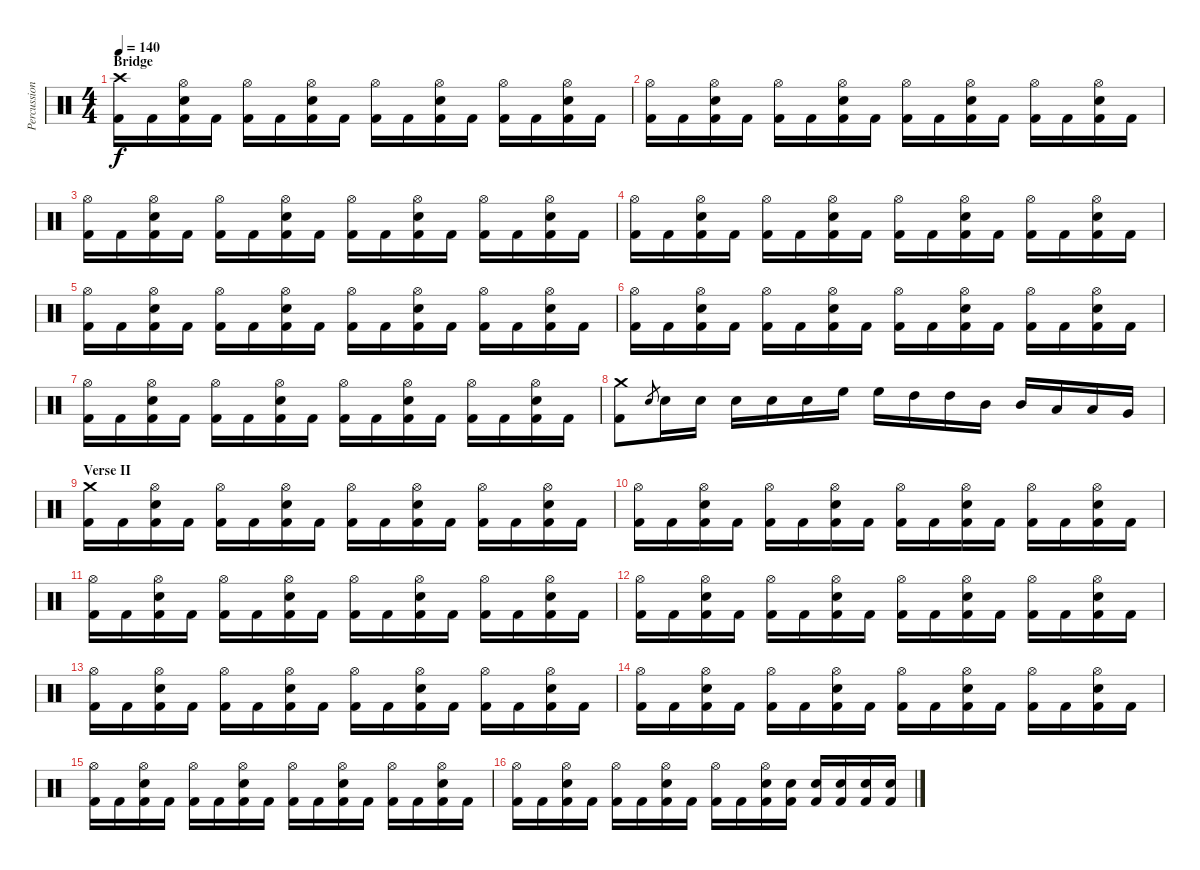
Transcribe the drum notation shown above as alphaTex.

\track ("Percussion" "Percussion") {instrument percussion}
\staff {score}
\articulation defaults
\ts (4 4)
\section ("" "Bridge")
\tempo 140
\clef neutral
\ks c
("Crash high (hit)" "Kick (hit) 2").16{dy f} "Kick (hit) 2".16 ("Hi-Hat (open)" "Electric Snare (hit)" "Kick (hit) 2").16 "Kick (hit) 2".16 ("Hi-Hat (open)" "Kick (hit) 2").16 "Kick (hit) 2".16 ("Hi-Hat (open)" "Electric Snare (hit)" "Kick (hit) 2").16 "Kick (hit) 2".16 ("Hi-Hat (open)" "Kick (hit) 2").16 "Kick (hit) 2".16 ("Hi-Hat (open)" "Electric Snare (hit)" "Kick (hit) 2").16 "Kick (hit) 2".16 ("Hi-Hat (open)" "Kick (hit) 2").16 "Kick (hit) 2".16 ("Hi-Hat (open)" "Electric Snare (hit)" "Kick (hit) 2").16 "Kick (hit) 2".16 |
("Hi-Hat (open)" "Kick (hit) 2").16 "Kick (hit) 2".16 ("Hi-Hat (open)" "Electric Snare (hit)" "Kick (hit) 2").16 "Kick (hit) 2".16 ("Hi-Hat (open)" "Kick (hit) 2").16 "Kick (hit) 2".16 ("Hi-Hat (open)" "Electric Snare (hit)" "Kick (hit) 2").16 "Kick (hit) 2".16 ("Hi-Hat (open)" "Kick (hit) 2").16 "Kick (hit) 2".16 ("Hi-Hat (open)" "Electric Snare (hit)" "Kick (hit) 2").16 "Kick (hit) 2".16 ("Hi-Hat (open)" "Kick (hit) 2").16 "Kick (hit) 2".16 ("Hi-Hat (open)" "Electric Snare (hit)" "Kick (hit) 2").16 "Kick (hit) 2".16 |
("Hi-Hat (open)" "Kick (hit) 2").16 "Kick (hit) 2".16 ("Hi-Hat (open)" "Electric Snare (hit)" "Kick (hit) 2").16 "Kick (hit) 2".16 ("Hi-Hat (open)" "Kick (hit) 2").16 "Kick (hit) 2".16 ("Hi-Hat (open)" "Electric Snare (hit)" "Kick (hit) 2").16 "Kick (hit) 2".16 ("Hi-Hat (open)" "Kick (hit) 2").16 "Kick (hit) 2".16 ("Hi-Hat (open)" "Electric Snare (hit)" "Kick (hit) 2").16 "Kick (hit) 2".16 ("Hi-Hat (open)" "Kick (hit) 2").16 "Kick (hit) 2".16 ("Hi-Hat (open)" "Electric Snare (hit)" "Kick (hit) 2").16 "Kick (hit) 2".16 |
("Hi-Hat (open)" "Kick (hit) 2").16 "Kick (hit) 2".16 ("Hi-Hat (open)" "Electric Snare (hit)" "Kick (hit) 2").16 "Kick (hit) 2".16 ("Hi-Hat (open)" "Kick (hit) 2").16 "Kick (hit) 2".16 ("Hi-Hat (open)" "Electric Snare (hit)" "Kick (hit) 2").16 "Kick (hit) 2".16 ("Hi-Hat (open)" "Kick (hit) 2").16 "Kick (hit) 2".16 ("Hi-Hat (open)" "Electric Snare (hit)" "Kick (hit) 2").16 "Kick (hit) 2".16 ("Hi-Hat (open)" "Kick (hit) 2").16 "Kick (hit) 2".16 ("Hi-Hat (open)" "Electric Snare (hit)" "Kick (hit) 2").16 "Kick (hit) 2".16 |
("Hi-Hat (open)" "Kick (hit) 2").16 "Kick (hit) 2".16 ("Hi-Hat (open)" "Electric Snare (hit)" "Kick (hit) 2").16 "Kick (hit) 2".16 ("Hi-Hat (open)" "Kick (hit) 2").16 "Kick (hit) 2".16 ("Hi-Hat (open)" "Electric Snare (hit)" "Kick (hit) 2").16 "Kick (hit) 2".16 ("Hi-Hat (open)" "Kick (hit) 2").16 "Kick (hit) 2".16 ("Hi-Hat (open)" "Electric Snare (hit)" "Kick (hit) 2").16 "Kick (hit) 2".16 ("Hi-Hat (open)" "Kick (hit) 2").16 "Kick (hit) 2".16 ("Hi-Hat (open)" "Electric Snare (hit)" "Kick (hit) 2").16 "Kick (hit) 2".16 |
("Hi-Hat (open)" "Kick (hit) 2").16 "Kick (hit) 2".16 ("Hi-Hat (open)" "Electric Snare (hit)" "Kick (hit) 2").16 "Kick (hit) 2".16 ("Hi-Hat (open)" "Kick (hit) 2").16 "Kick (hit) 2".16 ("Hi-Hat (open)" "Electric Snare (hit)" "Kick (hit) 2").16 "Kick (hit) 2".16 ("Hi-Hat (open)" "Kick (hit) 2").16 "Kick (hit) 2".16 ("Hi-Hat (open)" "Electric Snare (hit)" "Kick (hit) 2").16 "Kick (hit) 2".16 ("Hi-Hat (open)" "Kick (hit) 2").16 "Kick (hit) 2".16 ("Hi-Hat (open)" "Electric Snare (hit)" "Kick (hit) 2").16 "Kick (hit) 2".16 |
("Hi-Hat (open)" "Kick (hit) 2").16 "Kick (hit) 2".16 ("Hi-Hat (open)" "Electric Snare (hit)" "Kick (hit) 2").16 "Kick (hit) 2".16 ("Hi-Hat (open)" "Kick (hit) 2").16 "Kick (hit) 2".16 ("Hi-Hat (open)" "Electric Snare (hit)" "Kick (hit) 2").16 "Kick (hit) 2".16 ("Hi-Hat (open)" "Kick (hit) 2").16 "Kick (hit) 2".16 ("Hi-Hat (open)" "Electric Snare (hit)" "Kick (hit) 2").16 "Kick (hit) 2".16 ("Hi-Hat (open)" "Kick (hit) 2").16 "Kick (hit) 2".16 ("Hi-Hat (open)" "Electric Snare (hit)" "Kick (hit) 2").16 "Kick (hit) 2".16 |
("Crash medium (hit)" "Kick (hit) 2").8 "Electric Snare (hit)".8{gr} "Electric Snare (hit)".16 "Electric Snare (hit)".16 "Electric Snare (hit)".16 "Electric Snare (hit)".16 "Electric Snare (hit)".16 "High Floor Tom (hit)".16 "High Floor Tom (hit)".16 "High Tom (hit)".16 "High Tom (hit)".16 "Mid Tom (hit)".16 "Mid Tom (hit)".16 "Low Tom (hit)".16 "Low Tom (hit)".16 "Very Low Tom (hit)".16 |
\section ("" "Verse II")
("Crash medium (hit)" "Kick (hit) 2").16 "Kick (hit) 2".16 ("Hi-Hat (open)" "Electric Snare (hit)" "Kick (hit) 2").16 "Kick (hit) 2".16 ("Hi-Hat (open)" "Kick (hit) 2").16 "Kick (hit) 2".16 ("Hi-Hat (open)" "Electric Snare (hit)" "Kick (hit) 2").16 "Kick (hit) 2".16 ("Hi-Hat (open)" "Kick (hit) 2").16 "Kick (hit) 2".16 ("Hi-Hat (open)" "Electric Snare (hit)" "Kick (hit) 2").16 "Kick (hit) 2".16 ("Hi-Hat (open)" "Kick (hit) 2").16 "Kick (hit) 2".16 ("Hi-Hat (open)" "Electric Snare (hit)" "Kick (hit) 2").16 "Kick (hit) 2".16 |
("Hi-Hat (open)" "Kick (hit) 2").16 "Kick (hit) 2".16 ("Hi-Hat (open)" "Electric Snare (hit)" "Kick (hit) 2").16 "Kick (hit) 2".16 ("Hi-Hat (open)" "Kick (hit) 2").16 "Kick (hit) 2".16 ("Hi-Hat (open)" "Electric Snare (hit)" "Kick (hit) 2").16 "Kick (hit) 2".16 ("Hi-Hat (open)" "Kick (hit) 2").16 "Kick (hit) 2".16 ("Hi-Hat (open)" "Electric Snare (hit)" "Kick (hit) 2").16 "Kick (hit) 2".16 ("Hi-Hat (open)" "Kick (hit) 2").16 "Kick (hit) 2".16 ("Hi-Hat (open)" "Electric Snare (hit)" "Kick (hit) 2").16 "Kick (hit) 2".16 |
("Hi-Hat (open)" "Kick (hit) 2").16 "Kick (hit) 2".16 ("Hi-Hat (open)" "Electric Snare (hit)" "Kick (hit) 2").16 "Kick (hit) 2".16 ("Hi-Hat (open)" "Kick (hit) 2").16 "Kick (hit) 2".16 ("Hi-Hat (open)" "Electric Snare (hit)" "Kick (hit) 2").16 "Kick (hit) 2".16 ("Hi-Hat (open)" "Kick (hit) 2").16 "Kick (hit) 2".16 ("Hi-Hat (open)" "Electric Snare (hit)" "Kick (hit) 2").16 "Kick (hit) 2".16 ("Hi-Hat (open)" "Kick (hit) 2").16 "Kick (hit) 2".16 ("Hi-Hat (open)" "Electric Snare (hit)" "Kick (hit) 2").16 "Kick (hit) 2".16 |
("Hi-Hat (open)" "Kick (hit) 2").16 "Kick (hit) 2".16 ("Hi-Hat (open)" "Electric Snare (hit)" "Kick (hit) 2").16 "Kick (hit) 2".16 ("Hi-Hat (open)" "Kick (hit) 2").16 "Kick (hit) 2".16 ("Hi-Hat (open)" "Electric Snare (hit)" "Kick (hit) 2").16 "Kick (hit) 2".16 ("Hi-Hat (open)" "Kick (hit) 2").16 "Kick (hit) 2".16 ("Hi-Hat (open)" "Electric Snare (hit)" "Kick (hit) 2").16 "Kick (hit) 2".16 ("Hi-Hat (open)" "Kick (hit) 2").16 "Kick (hit) 2".16 ("Hi-Hat (open)" "Electric Snare (hit)" "Kick (hit) 2").16 "Kick (hit) 2".16 |
("Hi-Hat (open)" "Kick (hit) 2").16 "Kick (hit) 2".16 ("Hi-Hat (open)" "Electric Snare (hit)" "Kick (hit) 2").16 "Kick (hit) 2".16 ("Hi-Hat (open)" "Kick (hit) 2").16 "Kick (hit) 2".16 ("Hi-Hat (open)" "Electric Snare (hit)" "Kick (hit) 2").16 "Kick (hit) 2".16 ("Hi-Hat (open)" "Kick (hit) 2").16 "Kick (hit) 2".16 ("Hi-Hat (open)" "Electric Snare (hit)" "Kick (hit) 2").16 "Kick (hit) 2".16 ("Hi-Hat (open)" "Kick (hit) 2").16 "Kick (hit) 2".16 ("Hi-Hat (open)" "Electric Snare (hit)" "Kick (hit) 2").16 "Kick (hit) 2".16 |
("Hi-Hat (open)" "Kick (hit) 2").16 "Kick (hit) 2".16 ("Hi-Hat (open)" "Electric Snare (hit)" "Kick (hit) 2").16 "Kick (hit) 2".16 ("Hi-Hat (open)" "Kick (hit) 2").16 "Kick (hit) 2".16 ("Hi-Hat (open)" "Electric Snare (hit)" "Kick (hit) 2").16 "Kick (hit) 2".16 ("Hi-Hat (open)" "Kick (hit) 2").16 "Kick (hit) 2".16 ("Hi-Hat (open)" "Electric Snare (hit)" "Kick (hit) 2").16 "Kick (hit) 2".16 ("Hi-Hat (open)" "Kick (hit) 2").16 "Kick (hit) 2".16 ("Hi-Hat (open)" "Electric Snare (hit)" "Kick (hit) 2").16 "Kick (hit) 2".16 |
("Hi-Hat (open)" "Kick (hit) 2").16 "Kick (hit) 2".16 ("Hi-Hat (open)" "Electric Snare (hit)" "Kick (hit) 2").16 "Kick (hit) 2".16 ("Hi-Hat (open)" "Kick (hit) 2").16 "Kick (hit) 2".16 ("Hi-Hat (open)" "Electric Snare (hit)" "Kick (hit) 2").16 "Kick (hit) 2".16 ("Hi-Hat (open)" "Kick (hit) 2").16 "Kick (hit) 2".16 ("Hi-Hat (open)" "Electric Snare (hit)" "Kick (hit) 2").16 "Kick (hit) 2".16 ("Hi-Hat (open)" "Kick (hit) 2").16 "Kick (hit) 2".16 ("Hi-Hat (open)" "Electric Snare (hit)" "Kick (hit) 2").16 "Kick (hit) 2".16 |
("Hi-Hat (open)" "Kick (hit) 2").16 "Kick (hit) 2".16 ("Hi-Hat (open)" "Electric Snare (hit)" "Kick (hit) 2").16 "Kick (hit) 2".16 ("Hi-Hat (open)" "Kick (hit) 2").16 "Kick (hit) 2".16 ("Hi-Hat (open)" "Electric Snare (hit)" "Kick (hit) 2").16 "Kick (hit) 2".16 ("Hi-Hat (open)" "Kick (hit) 2").16 "Kick (hit) 2".16 ("Hi-Hat (open)" "Electric Snare (hit)" "Kick (hit) 2").16 ("Electric Snare (hit)" "Kick (hit) 2").16 ("Electric Snare (hit)" "Kick (hit) 2").16 ("Electric Snare (hit)" "Kick (hit) 2").16 ("Electric Snare (hit)" "Kick (hit) 2").16 ("Electric Snare (hit)" "Kick (hit) 2").16
